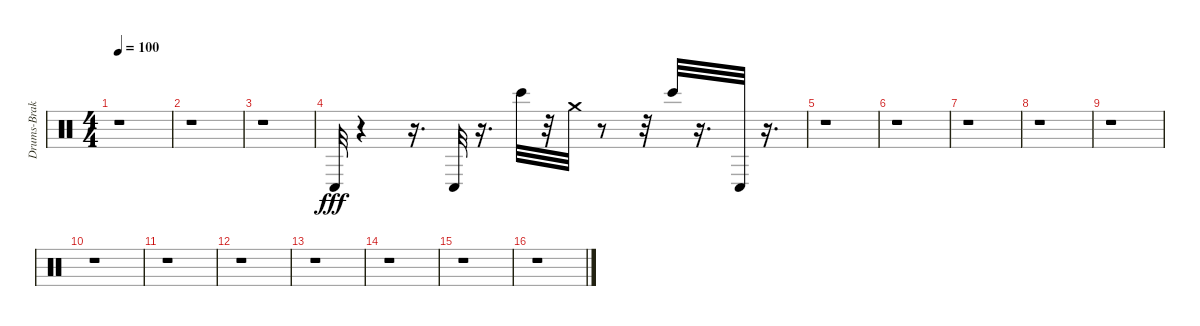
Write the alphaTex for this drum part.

\track ("Drums-Brakes" "Drums-Brak") {instrument percussion}
\staff {score}
\articulation defaults
\ts (4 4)
\tempo 100
\clef neutral
\ks c
r.1{dy ff} |
r.1 |
r.1 |
"Conga low (hit)".32{dy fff} r.4 r.16{d} "Conga low (hit)".32 r.16{d} "Bongo High (hit)".32 r.32 "Crash medium (hit)".32 r.8 r.32 "Bongo High (hit)".32 r.16{d} "Conga low (hit)".32 r.16{d} |
r.1 |
r.1 |
r.1 |
r.1 |
r.1 |
r.1 |
r.1 |
r.1 |
r.1 |
r.1 |
r.1 |
r.1
